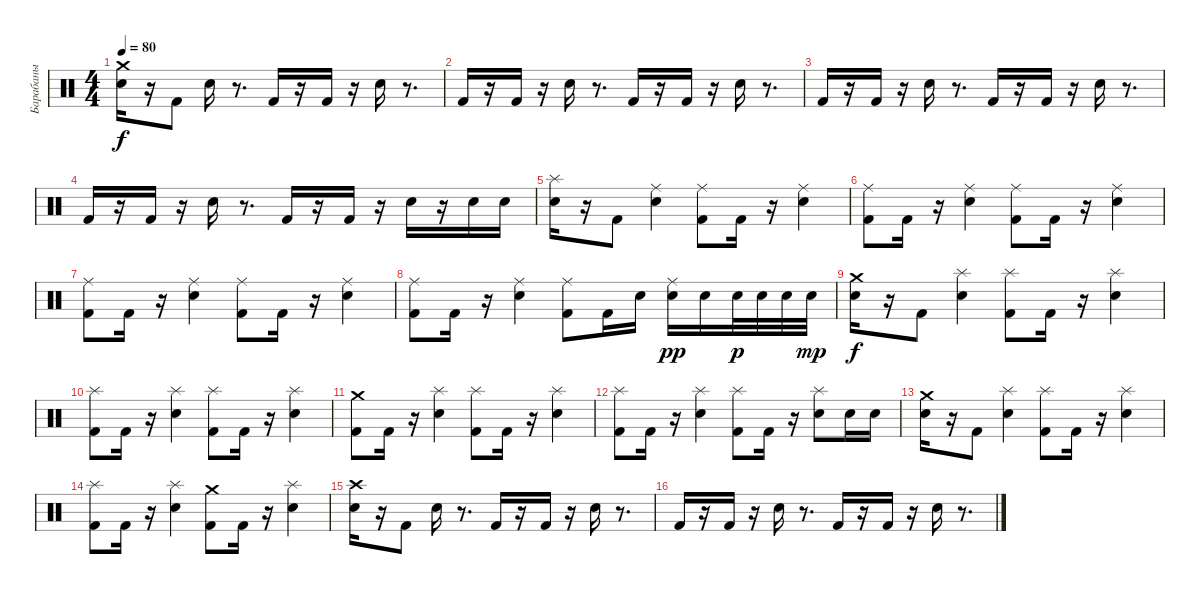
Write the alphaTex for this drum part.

\track ("Барабаны" "Барабаны") {instrument percussion}
\staff {score}
\articulation defaults
\ts (4 4)
\tempo 80
\clef neutral
\ks c
("Crash medium (hit)" "Snare (hit) 2").16{dy f} r.16 "Kick (hit) 2".8 "Electric Snare (hit)".16 r.8{d} "Kick (hit) 2".16 r.16 "Kick (hit) 2".16 r.16 "Electric Snare (hit)".16 r.8{d} |
"Kick (hit) 2".16 r.16 "Kick (hit) 2".16 r.16 "Electric Snare (hit)".16 r.8{d} "Kick (hit) 2".16 r.16 "Kick (hit) 2".16 r.16 "Electric Snare (hit)".16 r.8{d} |
"Kick (hit) 2".16 r.16 "Kick (hit) 2".16 r.16 "Electric Snare (hit)".16 r.8{d} "Kick (hit) 2".16 r.16 "Kick (hit) 2".16 r.16 "Electric Snare (hit)".16 r.8{d} |
"Kick (hit) 2".16 r.16 "Kick (hit) 2".16 r.16 "Electric Snare (hit)".16 r.8{d} "Kick (hit) 2".16 r.16 "Kick (hit) 2".16 r.16 "Electric Snare (hit)".16 r.16 "Electric Snare (hit)".16 "Electric Snare (hit)".16 |
("Splash (hit)" "Snare (hit) 2").16 r.16 "Kick (hit) 2".8 ("Ride (middle)" "Electric Snare (hit)").4 ("Ride (middle)" "Kick (hit) 2").8 "Kick (hit) 2".16 r.16 ("Ride (middle)" "Electric Snare (hit)").4 |
("Ride (middle)" "Kick (hit) 2").8 "Kick (hit) 2".16 r.16 ("Electric Snare (hit)" "Ride (middle)").4 ("Kick (hit) 2" "Ride (middle)").8 "Kick (hit) 2".16 r.16 ("Electric Snare (hit)" "Ride (middle)").4 |
("Kick (hit) 2" "Ride (middle)").8 "Kick (hit) 2".16 r.16 ("Electric Snare (hit)" "Ride (middle)").4 ("Kick (hit) 2" "Ride (middle)").8 "Kick (hit) 2".16 r.16 ("Electric Snare (hit)" "Ride (middle)").4 |
("Kick (hit) 2" "Ride (middle)").8 "Kick (hit) 2".16 r.16 ("Electric Snare (hit)" "Ride (middle)").4 ("Kick (hit) 2" "Ride (middle)").8 "Kick (hit) 2".16 "Electric Snare (hit)".16 ("Electric Snare (hit)" "Ride (middle)").16{dy pp} "Electric Snare (hit)".16 "Electric Snare (hit)".32{dy p} "Electric Snare (hit)".32 "Electric Snare (hit)".32 "Electric Snare (hit)".32{dy mp} |
("Crash medium (hit)" "Snare (hit) 2").16{dy f} r.16 "Kick (hit) 2".8 ("Splash (hit)" "Electric Snare (hit)").4 ("Splash (hit)" "Kick (hit) 2").8 "Kick (hit) 2".16 r.16 ("Splash (hit)" "Electric Snare (hit)").4 |
("Splash (hit)" "Kick (hit) 2").8 "Kick (hit) 2".16 r.16 ("Splash (hit)" "Electric Snare (hit)").4 ("Splash (hit)" "Kick (hit) 2").8 "Kick (hit) 2".16 r.16 ("Splash (hit)" "Electric Snare (hit)").4 |
("Crash medium (hit)" "Kick (hit) 2").8 "Kick (hit) 2".16 r.16 ("Splash (hit)" "Electric Snare (hit)").4 ("Splash (hit)" "Kick (hit) 2").8 "Kick (hit) 2".16 r.16 ("Splash (hit)" "Electric Snare (hit)").4 |
("Splash (hit)" "Kick (hit) 2").8 "Kick (hit) 2".16 r.16 ("Splash (hit)" "Electric Snare (hit)").4 ("Splash (hit)" "Kick (hit) 2").8 "Kick (hit) 2".16 r.16 ("Splash (hit)" "Electric Snare (hit)").8 "Electric Snare (hit)".16 "Electric Snare (hit)".16 |
("Crash medium (hit)" "Snare (hit) 2").16 r.16 "Kick (hit) 2".8 ("Splash (hit)" "Electric Snare (hit)").4 ("Splash (hit)" "Kick (hit) 2").8 "Kick (hit) 2".16 r.16 ("Splash (hit)" "Electric Snare (hit)").4 |
("Splash (hit)" "Kick (hit) 2").8 "Kick (hit) 2".16 r.16 ("Splash (hit)" "Electric Snare (hit)").4 ("Crash medium (hit)" "Kick (hit) 2").8 "Kick (hit) 2".16 r.16 ("Splash (hit)" "Electric Snare (hit)").4 |
("Crash high (hit)" "Snare (hit) 2").16 r.16 "Kick (hit) 2".8 "Electric Snare (hit)".16 r.8{d} "Kick (hit) 2".16 r.16 "Kick (hit) 2".16 r.16 "Electric Snare (hit)".16 r.8{d} |
"Kick (hit) 2".16 r.16 "Kick (hit) 2".16 r.16 "Electric Snare (hit)".16 r.8{d} "Kick (hit) 2".16 r.16 "Kick (hit) 2".16 r.16 "Electric Snare (hit)".16 r.8{d}
